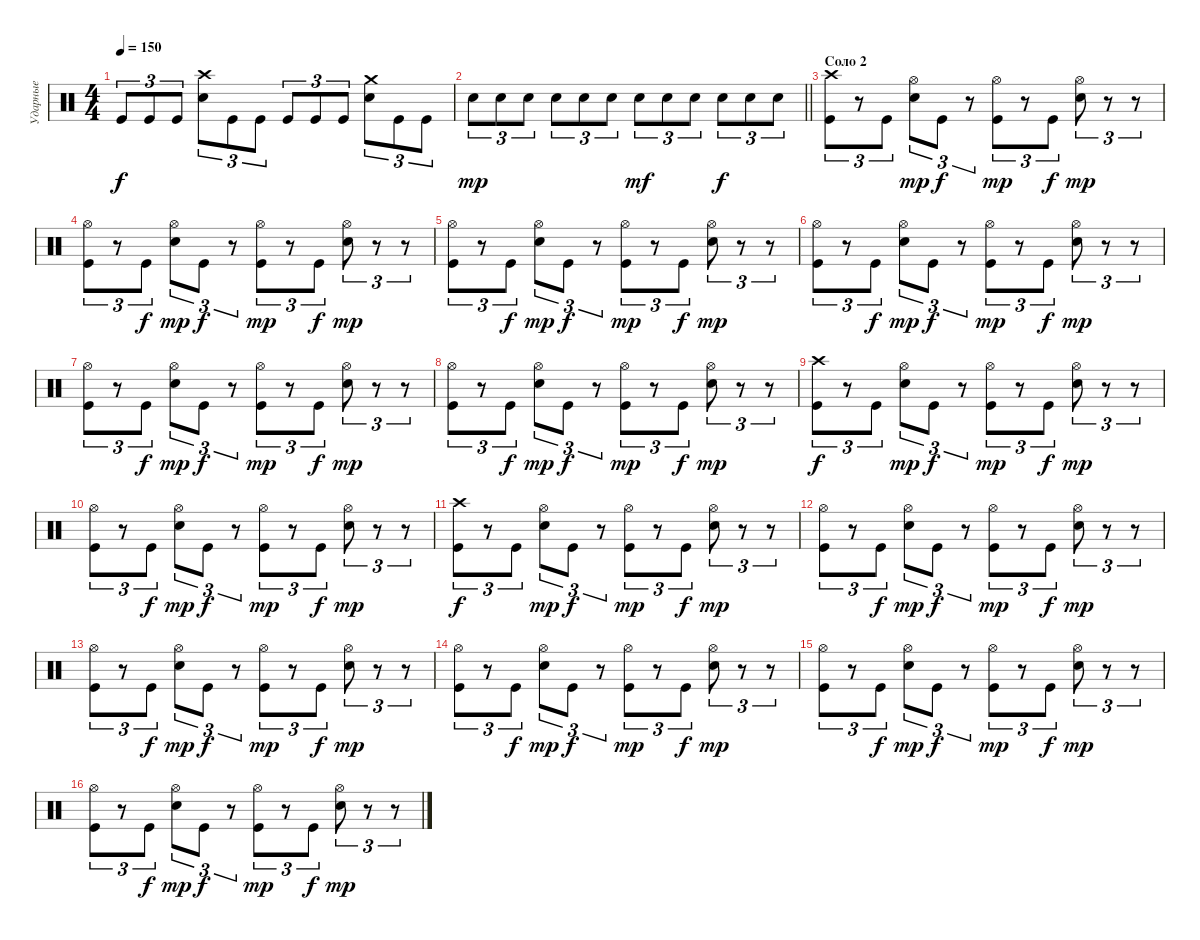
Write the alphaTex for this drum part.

\track ("Ударные" "Ударные") {instrument percussion}
\staff {score}
\articulation defaults
\ts (4 4)
\tempo 150
\clef neutral
\ks c "Kick (hit)".8{tu (3 2) dy f} "Kick (hit)".8{tu (3 2)} "Kick (hit)".8{tu (3 2)}
("Crash high (hit)" "Snare (hit) 2").8{tu (3 2)} "Kick (hit)".8{tu (3 2)} "Kick (hit)".8{tu (3 2)} "Kick (hit)".8{tu (3 2)} "Kick (hit)".8{tu (3 2)} "Kick (hit)".8{tu (3 2)} ("Crash medium (hit)" "Snare (hit) 2").8{tu (3 2)} "Kick (hit)".8{tu (3 2)} "Kick (hit)".8{tu (3 2)} |
\barLineRight lightlight "Snare (hit) 2".8{tu (3 2) dy mp} "Snare (hit) 2".8{tu (3 2)} "Snare (hit) 2".8{tu (3 2)} "Snare (hit) 2".8{tu (3 2)} "Snare (hit) 2".8{tu (3 2)} "Snare (hit) 2".8{tu (3 2)} "Snare (hit) 2".8{tu (3 2) dy mf} "Snare (hit) 2".8{tu (3 2)} "Snare (hit) 2".8{tu (3 2)} "Snare (hit) 2".8{tu (3 2) dy f} "Snare (hit) 2".8{tu (3 2)} "Snare (hit) 2".8{tu (3 2)}
|
\section ("" "Соло 2")
("Crash high (hit)" "Kick (hit)").8{tu (3 2)} r.8{tu (3 2)} "Kick (hit)".8{tu (3 2)} ("Hi-Hat (open)" "Snare (hit) 2").8{tu (3 2) dy mp} "Kick (hit)".8{tu (3 2) dy f} r.8{tu (3 2)} ("Hi-Hat (open)" "Kick (hit)").8{tu (3 2) dy mp} r.8{tu (3 2)} "Kick (hit)".8{tu (3 2) dy f} ("Hi-Hat (open)" "Snare (hit) 2").8{tu (3 2) dy mp} r.8{tu (3 2)} r.8{tu (3 2)} |
("Hi-Hat (open)" "Kick (hit)").8{tu (3 2)} r.8{tu (3 2)} "Kick (hit)".8{tu (3 2) dy f} ("Hi-Hat (open)" "Snare (hit) 2").8{tu (3 2) dy mp} "Kick (hit)".8{tu (3 2) dy f} r.8{tu (3 2)} ("Hi-Hat (open)" "Kick (hit)").8{tu (3 2) dy mp} r.8{tu (3 2)} "Kick (hit)".8{tu (3 2) dy f} ("Hi-Hat (open)" "Snare (hit) 2").8{tu (3 2) dy mp} r.8{tu (3 2)} r.8{tu (3 2)} |
("Hi-Hat (open)" "Kick (hit)").8{tu (3 2)} r.8{tu (3 2)} "Kick (hit)".8{tu (3 2) dy f} ("Hi-Hat (open)" "Snare (hit) 2").8{tu (3 2) dy mp} "Kick (hit)".8{tu (3 2) dy f} r.8{tu (3 2)} ("Hi-Hat (open)" "Kick (hit)").8{tu (3 2) dy mp} r.8{tu (3 2)} "Kick (hit)".8{tu (3 2) dy f} ("Hi-Hat (open)" "Snare (hit) 2").8{tu (3 2) dy mp} r.8{tu (3 2)} r.8{tu (3 2)} |
("Hi-Hat (open)" "Kick (hit)").8{tu (3 2)} r.8{tu (3 2)} "Kick (hit)".8{tu (3 2) dy f} ("Hi-Hat (open)" "Snare (hit) 2").8{tu (3 2) dy mp} "Kick (hit)".8{tu (3 2) dy f} r.8{tu (3 2)} ("Hi-Hat (open)" "Kick (hit)").8{tu (3 2) dy mp} r.8{tu (3 2)} "Kick (hit)".8{tu (3 2) dy f} ("Hi-Hat (open)" "Snare (hit) 2").8{tu (3 2) dy mp} r.8{tu (3 2)} r.8{tu (3 2)} |
("Hi-Hat (open)" "Kick (hit)").8{tu (3 2)} r.8{tu (3 2)} "Kick (hit)".8{tu (3 2) dy f} ("Hi-Hat (open)" "Snare (hit) 2").8{tu (3 2) dy mp} "Kick (hit)".8{tu (3 2) dy f} r.8{tu (3 2)} ("Hi-Hat (open)" "Kick (hit)").8{tu (3 2) dy mp} r.8{tu (3 2)} "Kick (hit)".8{tu (3 2) dy f} ("Hi-Hat (open)" "Snare (hit) 2").8{tu (3 2) dy mp} r.8{tu (3 2)} r.8{tu (3 2)} |
("Hi-Hat (open)" "Kick (hit)").8{tu (3 2)} r.8{tu (3 2)} "Kick (hit)".8{tu (3 2) dy f} ("Hi-Hat (open)" "Snare (hit) 2").8{tu (3 2) dy mp} "Kick (hit)".8{tu (3 2) dy f} r.8{tu (3 2)} ("Hi-Hat (open)" "Kick (hit)").8{tu (3 2) dy mp} r.8{tu (3 2)} "Kick (hit)".8{tu (3 2) dy f} ("Hi-Hat (open)" "Snare (hit) 2").8{tu (3 2) dy mp} r.8{tu (3 2)} r.8{tu (3 2)} |
("Crash high (hit)" "Kick (hit)").8{tu (3 2) dy f} r.8{tu (3 2)} "Kick (hit)".8{tu (3 2)} ("Hi-Hat (open)" "Snare (hit) 2").8{tu (3 2) dy mp} "Kick (hit)".8{tu (3 2) dy f} r.8{tu (3 2)} ("Hi-Hat (open)" "Kick (hit)").8{tu (3 2) dy mp} r.8{tu (3 2)} "Kick (hit)".8{tu (3 2) dy f} ("Hi-Hat (open)" "Snare (hit) 2").8{tu (3 2) dy mp} r.8{tu (3 2)} r.8{tu (3 2)} |
("Hi-Hat (open)" "Kick (hit)").8{tu (3 2)} r.8{tu (3 2)} "Kick (hit)".8{tu (3 2) dy f} ("Hi-Hat (open)" "Snare (hit) 2").8{tu (3 2) dy mp} "Kick (hit)".8{tu (3 2) dy f} r.8{tu (3 2)} ("Hi-Hat (open)" "Kick (hit)").8{tu (3 2) dy mp} r.8{tu (3 2)} "Kick (hit)".8{tu (3 2) dy f} ("Hi-Hat (open)" "Snare (hit) 2").8{tu (3 2) dy mp} r.8{tu (3 2)} r.8{tu (3 2)} |
("Crash high (hit)" "Kick (hit)").8{tu (3 2) dy f} r.8{tu (3 2)} "Kick (hit)".8{tu (3 2)} ("Hi-Hat (open)" "Snare (hit) 2").8{tu (3 2) dy mp} "Kick (hit)".8{tu (3 2) dy f} r.8{tu (3 2)} ("Hi-Hat (open)" "Kick (hit)").8{tu (3 2) dy mp} r.8{tu (3 2)} "Kick (hit)".8{tu (3 2) dy f} ("Hi-Hat (open)" "Snare (hit) 2").8{tu (3 2) dy mp} r.8{tu (3 2)} r.8{tu (3 2)} |
("Hi-Hat (open)" "Kick (hit)").8{tu (3 2)} r.8{tu (3 2)} "Kick (hit)".8{tu (3 2) dy f} ("Hi-Hat (open)" "Snare (hit) 2").8{tu (3 2) dy mp} "Kick (hit)".8{tu (3 2) dy f} r.8{tu (3 2)} ("Hi-Hat (open)" "Kick (hit)").8{tu (3 2) dy mp} r.8{tu (3 2)} "Kick (hit)".8{tu (3 2) dy f} ("Hi-Hat (open)" "Snare (hit) 2").8{tu (3 2) dy mp} r.8{tu (3 2)} r.8{tu (3 2)} |
("Hi-Hat (open)" "Kick (hit)").8{tu (3 2)} r.8{tu (3 2)} "Kick (hit)".8{tu (3 2) dy f} ("Hi-Hat (open)" "Snare (hit) 2").8{tu (3 2) dy mp} "Kick (hit)".8{tu (3 2) dy f} r.8{tu (3 2)} ("Hi-Hat (open)" "Kick (hit)").8{tu (3 2) dy mp} r.8{tu (3 2)} "Kick (hit)".8{tu (3 2) dy f} ("Hi-Hat (open)" "Snare (hit) 2").8{tu (3 2) dy mp} r.8{tu (3 2)} r.8{tu (3 2)} |
("Hi-Hat (open)" "Kick (hit)").8{tu (3 2)} r.8{tu (3 2)} "Kick (hit)".8{tu (3 2) dy f} ("Hi-Hat (open)" "Snare (hit) 2").8{tu (3 2) dy mp} "Kick (hit)".8{tu (3 2) dy f} r.8{tu (3 2)} ("Hi-Hat (open)" "Kick (hit)").8{tu (3 2) dy mp} r.8{tu (3 2)} "Kick (hit)".8{tu (3 2) dy f} ("Hi-Hat (open)" "Snare (hit) 2").8{tu (3 2) dy mp} r.8{tu (3 2)} r.8{tu (3 2)} |
("Hi-Hat (open)" "Kick (hit)").8{tu (3 2)} r.8{tu (3 2)} "Kick (hit)".8{tu (3 2) dy f} ("Hi-Hat (open)" "Snare (hit) 2").8{tu (3 2) dy mp} "Kick (hit)".8{tu (3 2) dy f} r.8{tu (3 2)} ("Hi-Hat (open)" "Kick (hit)").8{tu (3 2) dy mp} r.8{tu (3 2)} "Kick (hit)".8{tu (3 2) dy f} ("Hi-Hat (open)" "Snare (hit) 2").8{tu (3 2) dy mp} r.8{tu (3 2)} r.8{tu (3 2)} |
("Hi-Hat (open)" "Kick (hit)").8{tu (3 2)} r.8{tu (3 2)} "Kick (hit)".8{tu (3 2) dy f} ("Hi-Hat (open)" "Snare (hit) 2").8{tu (3 2) dy mp} "Kick (hit)".8{tu (3 2) dy f} r.8{tu (3 2)} ("Hi-Hat (open)" "Kick (hit)").8{tu (3 2) dy mp} r.8{tu (3 2)} "Kick (hit)".8{tu (3 2) dy f} ("Hi-Hat (open)" "Snare (hit) 2").8{tu (3 2) dy mp} r.8{tu (3 2)} r.8{tu (3 2)}
